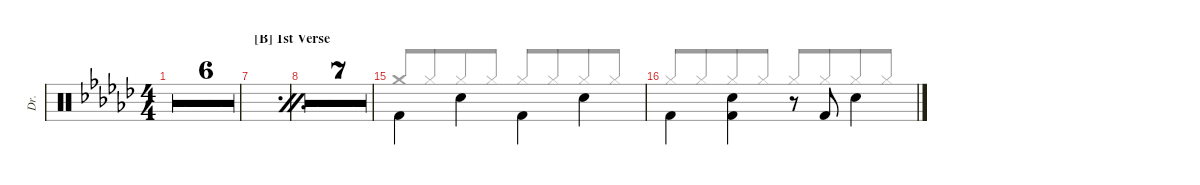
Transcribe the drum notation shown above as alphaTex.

\defaultSystemsLayout 4
\hideDynamics
\bracketExtendMode groupsimilarinstruments
\otherSystemsTrackNameOrientation horizontal
\track ("Drums" "Dr.") {multiBarRest instrument percussion}
\staff {score}
\articulation defaults
\voice
\ts (4 4)
\tempo 139
\clef neutral
\simile firstofdouble
\ks gb
|
\simile secondofdouble
|
\simile firstofdouble
|
\simile secondofdouble
|
\simile firstofdouble
|
\simile secondofdouble
\barLineRight lightlight
|
\section ("B" "1st Verse")
\simile firstofdouble
|
\simile secondofdouble
|
\simile firstofdouble
|
\simile secondofdouble
|
\simile firstofdouble
|
\simile secondofdouble
|
\simile firstofdouble
|
\simile secondofdouble
|
\simile none "Kick (hit) 2"{acc forcenatural}.4{beam Down} "Snare (hit) 2"{acc forcenatural}.4{beam Down} "Kick (hit) 2"{acc forcenatural}.4{beam Down} "Snare (hit) 2"{acc forcenatural}.4{beam Down}
|
"Kick (hit) 2"{acc forcenatural}.4{beam Down} ("Snare (hit) 2"{acc forcenatural} "Kick (hit) 2"{acc forcenatural}).4{beam Down} r.8{beam Up} "Kick (hit) 2"{acc forcenatural}.8{beam Down} "Snare (hit) 2"{acc forcenatural}.4{beam Down}
\voice
\clef neutral
\ottava regular
\simile firstofdouble
\ks gb
|
\simile secondofdouble
|
\simile firstofdouble
|
\simile secondofdouble
|
\simile firstofdouble
|
\simile secondofdouble
\barLineRight lightlight
|
\simile firstofdouble
|
\simile secondofdouble
|
\simile firstofdouble
|
\simile secondofdouble
|
\simile firstofdouble
|
\simile secondofdouble
|
\simile firstofdouble
|
\simile secondofdouble
|
\simile none "Crash medium (hit)"{acc forcenatural}.8{beam Up} "Hi-Hat (closed)"{acc forcenatural}.8{beam Up beam merge} "Hi-Hat (closed)"{acc forcenatural}.8{beam Up} "Hi-Hat (closed)"{acc forcenatural}.8{beam Up} "Hi-Hat (closed)"{acc forcenatural}.8{beam Up} "Hi-Hat (closed)"{acc forcenatural}.8{beam Up beam merge} "Hi-Hat (closed)"{acc forcenatural}.8{beam Up} "Hi-Hat (closed)"{acc forcenatural}.8{beam Up}
|
"Hi-Hat (closed)"{acc forcenatural}.8{beam Up} "Hi-Hat (closed)"{acc forcenatural}.8{beam Up beam merge} "Hi-Hat (closed)"{acc forcenatural}.8{beam Up} "Hi-Hat (closed)"{acc forcenatural}.8{beam Up} "Hi-Hat (closed)"{acc forcenatural}.8{beam Up beam merge} "Hi-Hat (closed)"{acc forcenatural}.8{beam Up beam merge} "Hi-Hat (closed)"{acc forcenatural}.8{beam Up beam merge} "Hi-Hat (closed)"{acc forcenatural}.8{beam Up}
